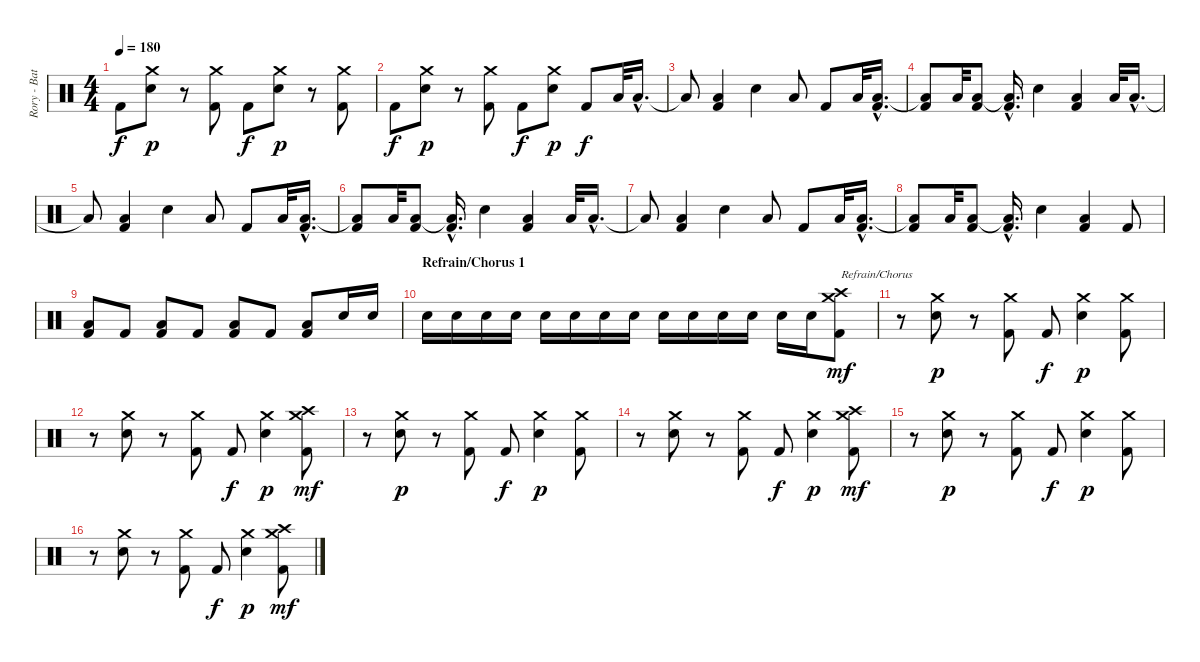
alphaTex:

\track ("Rory - Batterie/Drums" "Rory - Bat") {instrument percussion}
\staff {score}
\articulation defaults
\ts (4 4)
\tempo 180
\clef neutral
\ks c "Kick (hit) 2".8{dy f}
("Crash medium (hit)" "Electric Snare (hit)").8{dy p} r.8 ("Crash medium (hit)" "Kick (hit) 2").8 "Kick (hit) 2".8{dy f} ("Crash medium (hit)" "Electric Snare (hit)").8{dy p} r.8 ("Crash medium (hit)" "Kick (hit) 2").8 |
"Kick (hit) 2".8{dy f} ("Crash medium (hit)" "Electric Snare (hit)").8{dy p} r.8 ("Crash medium (hit)" "Kick (hit) 2").8 "Kick (hit) 2".8{dy f} ("Crash medium (hit)" "Electric Snare (hit)").8{dy p} "Kick (hit) 2".8{dy f} "Low Floor Tom (hit)".32 "Low Floor Tom (hit)"{hac}.16{d} |
"Low Floor Tom (hit)"{t}.8 ("Low Floor Tom (hit)" "Kick (hit) 2").4 "Electric Snare (hit)".4 "Low Floor Tom (hit)".8 "Kick (hit) 2".8 "Low Floor Tom (hit)".32 ("Low Floor Tom (hit)"{hac} "Kick (hit) 2"{hac}).16{d} |
("Low Floor Tom (hit)"{t} "Kick (hit) 2").8 "Low Floor Tom (hit)".32 ("Low Floor Tom (hit)" "Kick (hit) 2").8 ("Low Floor Tom (hit)"{hac t} "Kick (hit) 2"{hac}).16{d} "Electric Snare (hit)".4 ("Low Floor Tom (hit)" "Kick (hit) 2").4 "Low Floor Tom (hit)".32 "Low Floor Tom (hit)"{hac}.16{d} |
"Low Floor Tom (hit)"{t}.8 ("Low Floor Tom (hit)" "Kick (hit) 2").4 "Electric Snare (hit)".4 "Low Floor Tom (hit)".8 "Kick (hit) 2".8 "Low Floor Tom (hit)".32 ("Low Floor Tom (hit)"{hac} "Kick (hit) 2"{hac}).16{d} |
("Low Floor Tom (hit)"{t} "Kick (hit) 2").8 "Low Floor Tom (hit)".32 ("Low Floor Tom (hit)" "Kick (hit) 2").8 ("Low Floor Tom (hit)"{hac t} "Kick (hit) 2"{hac}).16{d} "Electric Snare (hit)".4 ("Low Floor Tom (hit)" "Kick (hit) 2").4 "Low Floor Tom (hit)".32 "Low Floor Tom (hit)"{hac}.16{d} |
"Low Floor Tom (hit)"{t}.8 ("Low Floor Tom (hit)" "Kick (hit) 2").4 "Electric Snare (hit)".4 "Low Floor Tom (hit)".8 "Kick (hit) 2".8 "Low Floor Tom (hit)".32 ("Low Floor Tom (hit)"{hac} "Kick (hit) 2"{hac}).16{d} |
("Low Floor Tom (hit)"{t} "Kick (hit) 2").8 "Low Floor Tom (hit)".32 ("Low Floor Tom (hit)" "Kick (hit) 2").8 ("Low Floor Tom (hit)"{hac t} "Kick (hit) 2"{hac}).16{d} "Electric Snare (hit)".4 ("Low Floor Tom (hit)" "Kick (hit) 2").4 "Kick (hit) 2".8 |
("Low Floor Tom (hit)" "Kick (hit) 2").8 "Kick (hit) 2".8 ("Low Floor Tom (hit)" "Kick (hit) 2").8 "Kick (hit) 2".8 ("Low Floor Tom (hit)" "Kick (hit) 2").8 "Kick (hit) 2".8 ("Low Floor Tom (hit)" "Kick (hit) 2").8 "Electric Snare (hit)".16 "Electric Snare (hit)".16 |
\section ("" "Refrain/Chorus 1")
"Electric Snare (hit)".16 "Electric Snare (hit)".16 "Electric Snare (hit)".16 "Electric Snare (hit)".16 "Electric Snare (hit)".16 "Electric Snare (hit)".16 "Electric Snare (hit)".16 "Electric Snare (hit)".16 "Electric Snare (hit)".16 "Electric Snare (hit)".16 "Electric Snare (hit)".16 "Electric Snare (hit)".16 "Electric Snare (hit)".16 "Electric Snare (hit)".16 ("Crash medium (hit)" "Crash high (hit)" "Kick (hit) 2").8{txt "Refrain/Chorus" dy mf} |
r.8 ("Crash medium (hit)" "Electric Snare (hit)").8{dy p} r.8 ("Crash medium (hit)" "Kick (hit) 2").8 "Kick (hit) 2".8{dy f} ("Crash medium (hit)" "Electric Snare (hit)").4{dy p} ("Crash medium (hit)" "Kick (hit) 2").8 |
r.8 ("Crash medium (hit)" "Electric Snare (hit)").8 r.8 ("Crash medium (hit)" "Kick (hit) 2").8 "Kick (hit) 2".8{dy f} ("Crash medium (hit)" "Electric Snare (hit)").4{dy p} ("Crash medium (hit)" "Crash high (hit)" "Kick (hit) 2").8{dy mf} |
r.8 ("Crash medium (hit)" "Electric Snare (hit)").8{dy p} r.8 ("Crash medium (hit)" "Kick (hit) 2").8 "Kick (hit) 2".8{dy f} ("Crash medium (hit)" "Electric Snare (hit)").4{dy p} ("Crash medium (hit)" "Kick (hit) 2").8 |
r.8 ("Crash medium (hit)" "Electric Snare (hit)").8 r.8 ("Crash medium (hit)" "Kick (hit) 2").8 "Kick (hit) 2".8{dy f} ("Crash medium (hit)" "Electric Snare (hit)").4{dy p} ("Crash medium (hit)" "Crash high (hit)" "Kick (hit) 2").8{dy mf} |
r.8 ("Crash medium (hit)" "Electric Snare (hit)").8{dy p} r.8 ("Crash medium (hit)" "Kick (hit) 2").8 "Kick (hit) 2".8{dy f} ("Crash medium (hit)" "Electric Snare (hit)").4{dy p} ("Crash medium (hit)" "Kick (hit) 2").8 |
r.8 ("Crash medium (hit)" "Electric Snare (hit)").8 r.8 ("Crash medium (hit)" "Kick (hit) 2").8 "Kick (hit) 2".8{dy f} ("Crash medium (hit)" "Electric Snare (hit)").4{dy p} ("Crash medium (hit)" "Crash high (hit)" "Kick (hit) 2").8{dy mf}
